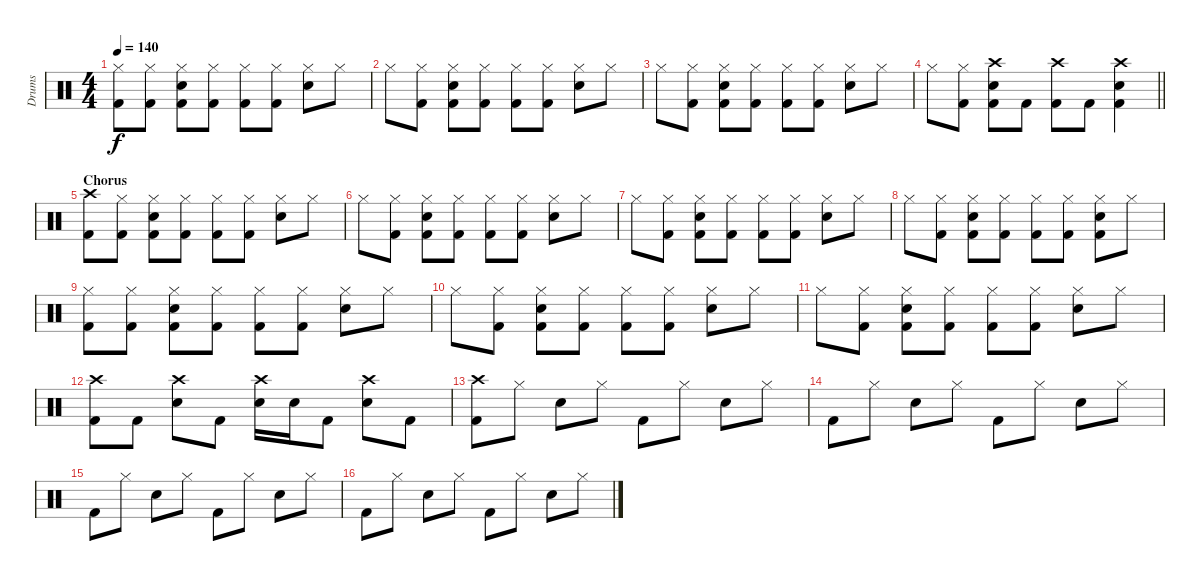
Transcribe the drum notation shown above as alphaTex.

\track ("Drums" "Drums") {instrument percussion}
\staff {score}
\articulation defaults
\ts (4 4)
\tempo 140
\clef neutral
\ks c
("Hi-Hat (closed)" "Kick (hit) 2").8{dy f} ("Hi-Hat (closed)" "Kick (hit) 2").8 ("Hi-Hat (closed)" "Kick (hit) 2" "Snare (hit) 2").8 ("Hi-Hat (closed)" "Kick (hit) 2").8 ("Hi-Hat (closed)" "Kick (hit) 2").8 ("Hi-Hat (closed)" "Kick (hit) 2").8 ("Hi-Hat (closed)" "Snare (hit) 2").8 "Hi-Hat (closed)".8 |
"Hi-Hat (closed)".8 ("Hi-Hat (closed)" "Kick (hit) 2").8 ("Hi-Hat (closed)" "Kick (hit) 2" "Snare (hit) 2").8 ("Hi-Hat (closed)" "Kick (hit) 2").8 ("Hi-Hat (closed)" "Kick (hit) 2").8 ("Hi-Hat (closed)" "Kick (hit) 2").8 ("Hi-Hat (closed)" "Snare (hit) 2").8 "Hi-Hat (closed)".8 |
"Hi-Hat (closed)".8 ("Hi-Hat (closed)" "Kick (hit) 2").8 ("Hi-Hat (closed)" "Kick (hit) 2" "Snare (hit) 2").8 ("Hi-Hat (closed)" "Kick (hit) 2").8 ("Hi-Hat (closed)" "Kick (hit) 2").8 ("Hi-Hat (closed)" "Kick (hit) 2").8 ("Hi-Hat (closed)" "Snare (hit) 2").8 "Hi-Hat (closed)".8 |
\barLineRight lightlight "Hi-Hat (closed)".8
("Hi-Hat (closed)" "Kick (hit) 2").8 ("Crash high (hit)" "Kick (hit) 2" "Snare (hit) 2").8 "Kick (hit) 2".8 ("Crash high (hit)" "Kick (hit) 2").8 "Kick (hit) 2".8 ("Crash high (hit)" "Snare (hit) 2" "Kick (hit) 2").4 |
\section ("" "Chorus")
("Crash high (hit)" "Kick (hit) 2").8 ("Hi-Hat (closed)" "Kick (hit) 2").8 ("Hi-Hat (closed)" "Kick (hit) 2" "Snare (hit) 2").8 ("Hi-Hat (closed)" "Kick (hit) 2").8 ("Hi-Hat (closed)" "Kick (hit) 2").8 ("Hi-Hat (closed)" "Kick (hit) 2").8 ("Hi-Hat (closed)" "Snare (hit) 2").8 "Hi-Hat (closed)".8 |
"Hi-Hat (closed)".8 ("Hi-Hat (closed)" "Kick (hit) 2").8 ("Hi-Hat (closed)" "Kick (hit) 2" "Snare (hit) 2").8 ("Hi-Hat (closed)" "Kick (hit) 2").8 ("Hi-Hat (closed)" "Kick (hit) 2").8 ("Hi-Hat (closed)" "Kick (hit) 2").8 ("Hi-Hat (closed)" "Snare (hit) 2").8 "Hi-Hat (closed)".8 |
"Hi-Hat (closed)".8 ("Hi-Hat (closed)" "Kick (hit) 2").8 ("Hi-Hat (closed)" "Kick (hit) 2" "Snare (hit) 2").8 ("Hi-Hat (closed)" "Kick (hit) 2").8 ("Hi-Hat (closed)" "Kick (hit) 2").8 ("Hi-Hat (closed)" "Kick (hit) 2").8 ("Hi-Hat (closed)" "Snare (hit) 2").8 "Hi-Hat (closed)".8 |
"Hi-Hat (closed)".8 ("Hi-Hat (closed)" "Kick (hit) 2").8 ("Hi-Hat (closed)" "Kick (hit) 2" "Snare (hit) 2").8 ("Hi-Hat (closed)" "Kick (hit) 2").8 ("Hi-Hat (closed)" "Kick (hit) 2").8 ("Hi-Hat (closed)" "Kick (hit) 2").8 ("Hi-Hat (closed)" "Snare (hit) 2" "Kick (hit) 2").8 "Hi-Hat (closed)".8 |
("Hi-Hat (closed)" "Kick (hit) 2").8 ("Hi-Hat (closed)" "Kick (hit) 2").8 ("Hi-Hat (closed)" "Kick (hit) 2" "Snare (hit) 2").8 ("Hi-Hat (closed)" "Kick (hit) 2").8 ("Hi-Hat (closed)" "Kick (hit) 2").8 ("Hi-Hat (closed)" "Kick (hit) 2").8 ("Hi-Hat (closed)" "Snare (hit) 2").8 "Hi-Hat (closed)".8 |
"Hi-Hat (closed)".8 ("Hi-Hat (closed)" "Kick (hit) 2").8 ("Hi-Hat (closed)" "Kick (hit) 2" "Snare (hit) 2").8 ("Hi-Hat (closed)" "Kick (hit) 2").8 ("Hi-Hat (closed)" "Kick (hit) 2").8 ("Hi-Hat (closed)" "Kick (hit) 2").8 ("Hi-Hat (closed)" "Snare (hit) 2").8 "Hi-Hat (closed)".8 |
"Hi-Hat (closed)".8 ("Hi-Hat (closed)" "Kick (hit) 2").8 ("Hi-Hat (closed)" "Kick (hit) 2" "Snare (hit) 2").8 ("Hi-Hat (closed)" "Kick (hit) 2").8 ("Hi-Hat (closed)" "Kick (hit) 2").8 ("Hi-Hat (closed)" "Kick (hit) 2").8 ("Hi-Hat (closed)" "Snare (hit) 2").8 "Hi-Hat (closed)".8 |
("Kick (hit) 2" "Crash high (hit)").8 "Kick (hit) 2".8 ("Snare (hit) 2" "Crash high (hit)").8 "Kick (hit) 2".8 ("Snare (hit) 2" "Crash high (hit)").16 "Snare (hit) 2".16 "Kick (hit) 2".8 ("Snare (hit) 2" "Crash high (hit)").8 "Kick (hit) 2".8 |
("Kick (hit) 2" "Crash high (hit)").8 "Hi-Hat (closed)".8 "Snare (hit) 2".8 "Hi-Hat (closed)".8 "Kick (hit) 2".8 "Hi-Hat (closed)".8 "Snare (hit) 2".8 "Hi-Hat (closed)".8 |
"Kick (hit) 2".8 "Hi-Hat (closed)".8 "Snare (hit) 2".8 "Hi-Hat (closed)".8 "Kick (hit) 2".8 "Hi-Hat (closed)".8 "Snare (hit) 2".8 "Hi-Hat (closed)".8 |
"Kick (hit) 2".8 "Hi-Hat (closed)".8 "Snare (hit) 2".8 "Hi-Hat (closed)".8 "Kick (hit) 2".8 "Hi-Hat (closed)".8 "Snare (hit) 2".8 "Hi-Hat (closed)".8 |
"Kick (hit) 2".8 "Hi-Hat (closed)".8 "Snare (hit) 2".8 "Hi-Hat (closed)".8 "Kick (hit) 2".8 "Hi-Hat (closed)".8 "Snare (hit) 2".8 "Hi-Hat (closed)".8
